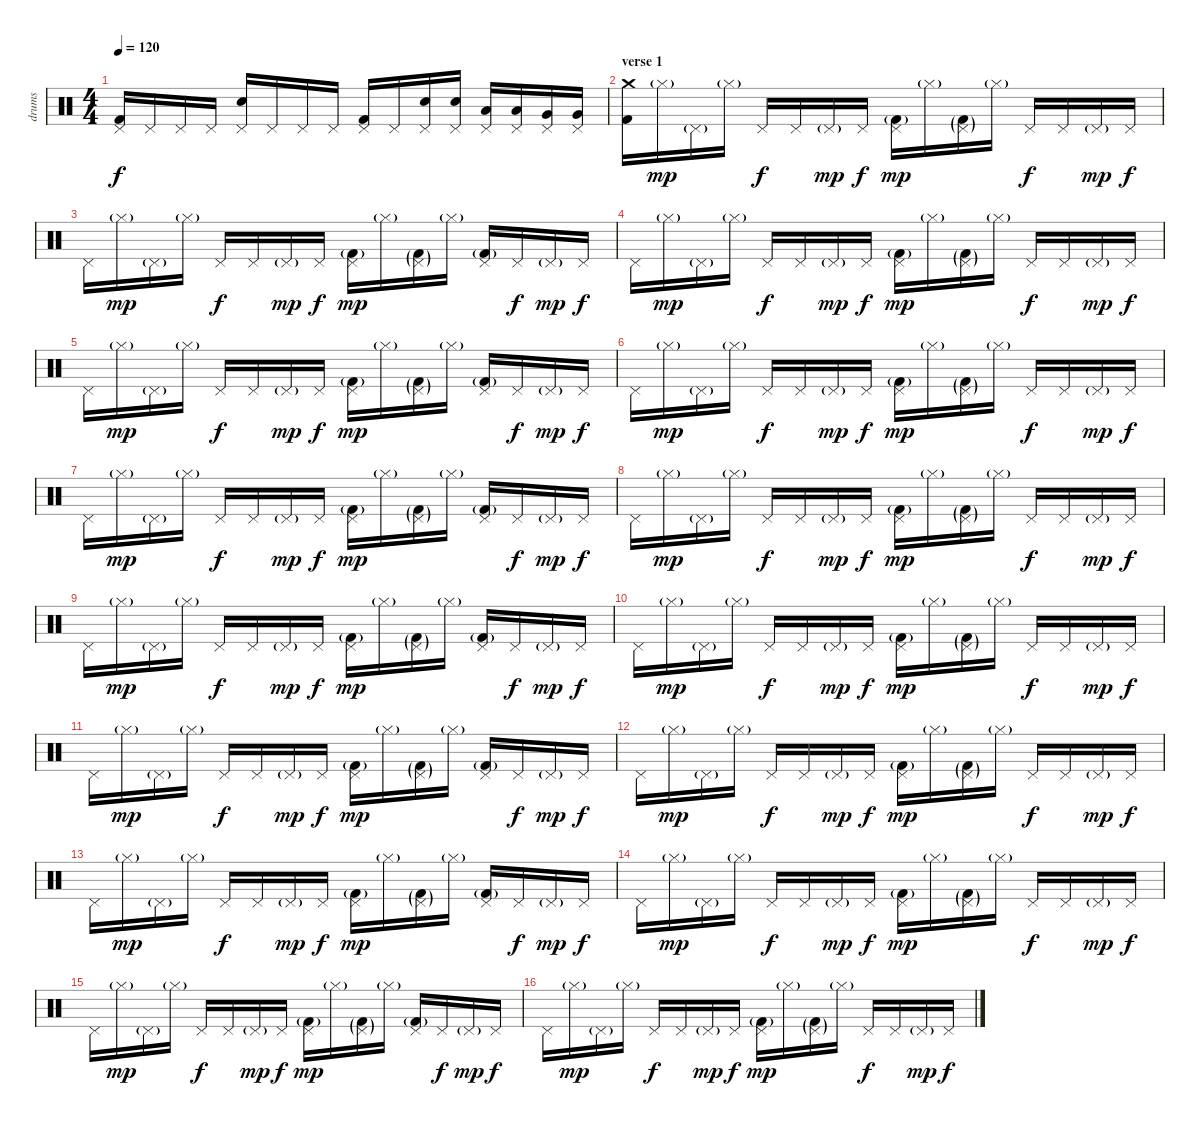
\track ("drums" "drums") {instrument percussion}
\staff {score}
\articulation defaults
\ts (4 4)
\tempo 120
\clef neutral
\ks c
("Kick (hit) 2" "Pedal Hi-Hat (hit)").16{dy f} "Pedal Hi-Hat (hit)".16 "Pedal Hi-Hat (hit)".16 "Pedal Hi-Hat (hit)".16 ("Electric Snare (hit)" "Pedal Hi-Hat (hit)").16 "Pedal Hi-Hat (hit)".16 "Pedal Hi-Hat (hit)".16 "Pedal Hi-Hat (hit)".16 ("Kick (hit) 2" "Pedal Hi-Hat (hit)").16 "Pedal Hi-Hat (hit)".16 ("Electric Snare (hit)" "Pedal Hi-Hat (hit)").16 ("Electric Snare (hit)" "Pedal Hi-Hat (hit)").16 ("Low Tom (hit)" "Pedal Hi-Hat (hit)").16 ("Low Tom (hit)" "Pedal Hi-Hat (hit)").16 ("Very Low Tom (hit)" "Pedal Hi-Hat (hit)").16 ("Very Low Tom (hit)" "Pedal Hi-Hat (hit)").16 |
\section ("" "verse 1")
("Kick (hit) 2" "Crash medium (hit)").16 "Hi-Hat (closed)"{g}.16{dy mp} "Pedal Hi-Hat (hit)"{g}.16 "Hi-Hat (closed)"{g}.16 "Pedal Hi-Hat (hit)".16{dy f volume 10} "Pedal Hi-Hat (hit)".16 "Pedal Hi-Hat (hit)"{g}.16{dy mp} "Pedal Hi-Hat (hit)".16{dy f} ("Kick (hit) 2"{g} "Pedal Hi-Hat (hit)").16{dy mp} "Hi-Hat (closed)"{g}.16 ("Kick (hit) 2"{g} "Pedal Hi-Hat (hit)"{g}).16 "Hi-Hat (closed)"{g}.16 "Pedal Hi-Hat (hit)".16{dy f} "Pedal Hi-Hat (hit)".16 "Pedal Hi-Hat (hit)"{g}.16{dy mp} "Pedal Hi-Hat (hit)".16{dy f} |
"Pedal Hi-Hat (hit)".16 "Hi-Hat (closed)"{g}.16{dy mp} "Pedal Hi-Hat (hit)"{g}.16 "Hi-Hat (closed)"{g}.16 "Pedal Hi-Hat (hit)".16{dy f} "Pedal Hi-Hat (hit)".16 "Pedal Hi-Hat (hit)"{g}.16{dy mp} "Pedal Hi-Hat (hit)".16{dy f} ("Kick (hit) 2"{g} "Pedal Hi-Hat (hit)").16{dy mp} "Hi-Hat (closed)"{g}.16 ("Kick (hit) 2"{g} "Pedal Hi-Hat (hit)"{g}).16 "Hi-Hat (closed)"{g}.16 ("Kick (hit) 2"{g} "Pedal Hi-Hat (hit)").16 "Pedal Hi-Hat (hit)".16{dy f} "Pedal Hi-Hat (hit)"{g}.16{dy mp} "Pedal Hi-Hat (hit)".16{dy f} |
"Pedal Hi-Hat (hit)".16 "Hi-Hat (closed)"{g}.16{dy mp} "Pedal Hi-Hat (hit)"{g}.16 "Hi-Hat (closed)"{g}.16 "Pedal Hi-Hat (hit)".16{dy f} "Pedal Hi-Hat (hit)".16 "Pedal Hi-Hat (hit)"{g}.16{dy mp} "Pedal Hi-Hat (hit)".16{dy f} ("Kick (hit) 2"{g} "Pedal Hi-Hat (hit)").16{dy mp} "Hi-Hat (closed)"{g}.16 ("Kick (hit) 2"{g} "Pedal Hi-Hat (hit)"{g}).16 "Hi-Hat (closed)"{g}.16 "Pedal Hi-Hat (hit)".16{dy f} "Pedal Hi-Hat (hit)".16 "Pedal Hi-Hat (hit)"{g}.16{dy mp} "Pedal Hi-Hat (hit)".16{dy f} |
"Pedal Hi-Hat (hit)".16 "Hi-Hat (closed)"{g}.16{dy mp} "Pedal Hi-Hat (hit)"{g}.16 "Hi-Hat (closed)"{g}.16 "Pedal Hi-Hat (hit)".16{dy f} "Pedal Hi-Hat (hit)".16 "Pedal Hi-Hat (hit)"{g}.16{dy mp} "Pedal Hi-Hat (hit)".16{dy f} ("Kick (hit) 2"{g} "Pedal Hi-Hat (hit)").16{dy mp} "Hi-Hat (closed)"{g}.16 ("Kick (hit) 2"{g} "Pedal Hi-Hat (hit)"{g}).16 "Hi-Hat (closed)"{g}.16 ("Kick (hit) 2"{g} "Pedal Hi-Hat (hit)").16 "Pedal Hi-Hat (hit)".16{dy f} "Pedal Hi-Hat (hit)"{g}.16{dy mp} "Pedal Hi-Hat (hit)".16{dy f} |
"Pedal Hi-Hat (hit)".16 "Hi-Hat (closed)"{g}.16{dy mp} "Pedal Hi-Hat (hit)"{g}.16 "Hi-Hat (closed)"{g}.16 "Pedal Hi-Hat (hit)".16{dy f} "Pedal Hi-Hat (hit)".16 "Pedal Hi-Hat (hit)"{g}.16{dy mp} "Pedal Hi-Hat (hit)".16{dy f} ("Kick (hit) 2"{g} "Pedal Hi-Hat (hit)").16{dy mp} "Hi-Hat (closed)"{g}.16 ("Kick (hit) 2"{g} "Pedal Hi-Hat (hit)"{g}).16 "Hi-Hat (closed)"{g}.16 "Pedal Hi-Hat (hit)".16{dy f} "Pedal Hi-Hat (hit)".16 "Pedal Hi-Hat (hit)"{g}.16{dy mp} "Pedal Hi-Hat (hit)".16{dy f} |
"Pedal Hi-Hat (hit)".16 "Hi-Hat (closed)"{g}.16{dy mp} "Pedal Hi-Hat (hit)"{g}.16 "Hi-Hat (closed)"{g}.16 "Pedal Hi-Hat (hit)".16{dy f} "Pedal Hi-Hat (hit)".16 "Pedal Hi-Hat (hit)"{g}.16{dy mp} "Pedal Hi-Hat (hit)".16{dy f} ("Kick (hit) 2"{g} "Pedal Hi-Hat (hit)").16{dy mp} "Hi-Hat (closed)"{g}.16 ("Kick (hit) 2"{g} "Pedal Hi-Hat (hit)"{g}).16 "Hi-Hat (closed)"{g}.16 ("Kick (hit) 2"{g} "Pedal Hi-Hat (hit)").16 "Pedal Hi-Hat (hit)".16{dy f} "Pedal Hi-Hat (hit)"{g}.16{dy mp} "Pedal Hi-Hat (hit)".16{dy f} |
"Pedal Hi-Hat (hit)".16 "Hi-Hat (closed)"{g}.16{dy mp} "Pedal Hi-Hat (hit)"{g}.16 "Hi-Hat (closed)"{g}.16 "Pedal Hi-Hat (hit)".16{dy f} "Pedal Hi-Hat (hit)".16 "Pedal Hi-Hat (hit)"{g}.16{dy mp} "Pedal Hi-Hat (hit)".16{dy f} ("Kick (hit) 2"{g} "Pedal Hi-Hat (hit)").16{dy mp} "Hi-Hat (closed)"{g}.16 ("Kick (hit) 2"{g} "Pedal Hi-Hat (hit)"{g}).16 "Hi-Hat (closed)"{g}.16 "Pedal Hi-Hat (hit)".16{dy f} "Pedal Hi-Hat (hit)".16 "Pedal Hi-Hat (hit)"{g}.16{dy mp} "Pedal Hi-Hat (hit)".16{dy f} |
"Pedal Hi-Hat (hit)".16 "Hi-Hat (closed)"{g}.16{dy mp} "Pedal Hi-Hat (hit)"{g}.16 "Hi-Hat (closed)"{g}.16 "Pedal Hi-Hat (hit)".16{dy f} "Pedal Hi-Hat (hit)".16 "Pedal Hi-Hat (hit)"{g}.16{dy mp} "Pedal Hi-Hat (hit)".16{dy f} ("Kick (hit) 2"{g} "Pedal Hi-Hat (hit)").16{dy mp} "Hi-Hat (closed)"{g}.16 ("Kick (hit) 2"{g} "Pedal Hi-Hat (hit)"{g}).16 "Hi-Hat (closed)"{g}.16 ("Kick (hit) 2"{g} "Pedal Hi-Hat (hit)").16 "Pedal Hi-Hat (hit)".16{dy f} "Pedal Hi-Hat (hit)"{g}.16{dy mp} "Pedal Hi-Hat (hit)".16{dy f} |
"Pedal Hi-Hat (hit)".16 "Hi-Hat (closed)"{g}.16{dy mp} "Pedal Hi-Hat (hit)"{g}.16 "Hi-Hat (closed)"{g}.16 "Pedal Hi-Hat (hit)".16{dy f} "Pedal Hi-Hat (hit)".16 "Pedal Hi-Hat (hit)"{g}.16{dy mp} "Pedal Hi-Hat (hit)".16{dy f} ("Kick (hit) 2"{g} "Pedal Hi-Hat (hit)").16{dy mp} "Hi-Hat (closed)"{g}.16 ("Kick (hit) 2"{g} "Pedal Hi-Hat (hit)"{g}).16 "Hi-Hat (closed)"{g}.16 "Pedal Hi-Hat (hit)".16{dy f} "Pedal Hi-Hat (hit)".16 "Pedal Hi-Hat (hit)"{g}.16{dy mp} "Pedal Hi-Hat (hit)".16{dy f} |
"Pedal Hi-Hat (hit)".16 "Hi-Hat (closed)"{g}.16{dy mp} "Pedal Hi-Hat (hit)"{g}.16 "Hi-Hat (closed)"{g}.16 "Pedal Hi-Hat (hit)".16{dy f} "Pedal Hi-Hat (hit)".16 "Pedal Hi-Hat (hit)"{g}.16{dy mp} "Pedal Hi-Hat (hit)".16{dy f} ("Kick (hit) 2"{g} "Pedal Hi-Hat (hit)").16{dy mp} "Hi-Hat (closed)"{g}.16 ("Kick (hit) 2"{g} "Pedal Hi-Hat (hit)"{g}).16 "Hi-Hat (closed)"{g}.16 ("Kick (hit) 2"{g} "Pedal Hi-Hat (hit)").16 "Pedal Hi-Hat (hit)".16{dy f} "Pedal Hi-Hat (hit)"{g}.16{dy mp} "Pedal Hi-Hat (hit)".16{dy f} |
"Pedal Hi-Hat (hit)".16 "Hi-Hat (closed)"{g}.16{dy mp} "Pedal Hi-Hat (hit)"{g}.16 "Hi-Hat (closed)"{g}.16 "Pedal Hi-Hat (hit)".16{dy f} "Pedal Hi-Hat (hit)".16 "Pedal Hi-Hat (hit)"{g}.16{dy mp} "Pedal Hi-Hat (hit)".16{dy f} ("Kick (hit) 2"{g} "Pedal Hi-Hat (hit)").16{dy mp} "Hi-Hat (closed)"{g}.16 ("Kick (hit) 2"{g} "Pedal Hi-Hat (hit)"{g}).16 "Hi-Hat (closed)"{g}.16 "Pedal Hi-Hat (hit)".16{dy f} "Pedal Hi-Hat (hit)".16 "Pedal Hi-Hat (hit)"{g}.16{dy mp} "Pedal Hi-Hat (hit)".16{dy f} |
"Pedal Hi-Hat (hit)".16 "Hi-Hat (closed)"{g}.16{dy mp} "Pedal Hi-Hat (hit)"{g}.16 "Hi-Hat (closed)"{g}.16 "Pedal Hi-Hat (hit)".16{dy f} "Pedal Hi-Hat (hit)".16 "Pedal Hi-Hat (hit)"{g}.16{dy mp} "Pedal Hi-Hat (hit)".16{dy f} ("Kick (hit) 2"{g} "Pedal Hi-Hat (hit)").16{dy mp} "Hi-Hat (closed)"{g}.16 ("Kick (hit) 2"{g} "Pedal Hi-Hat (hit)"{g}).16 "Hi-Hat (closed)"{g}.16 ("Kick (hit) 2"{g} "Pedal Hi-Hat (hit)").16 "Pedal Hi-Hat (hit)".16{dy f} "Pedal Hi-Hat (hit)"{g}.16{dy mp} "Pedal Hi-Hat (hit)".16{dy f} |
"Pedal Hi-Hat (hit)".16 "Hi-Hat (closed)"{g}.16{dy mp} "Pedal Hi-Hat (hit)"{g}.16 "Hi-Hat (closed)"{g}.16 "Pedal Hi-Hat (hit)".16{dy f} "Pedal Hi-Hat (hit)".16 "Pedal Hi-Hat (hit)"{g}.16{dy mp} "Pedal Hi-Hat (hit)".16{dy f} ("Kick (hit) 2"{g} "Pedal Hi-Hat (hit)").16{dy mp} "Hi-Hat (closed)"{g}.16 ("Kick (hit) 2"{g} "Pedal Hi-Hat (hit)"{g}).16 "Hi-Hat (closed)"{g}.16 "Pedal Hi-Hat (hit)".16{dy f} "Pedal Hi-Hat (hit)".16 "Pedal Hi-Hat (hit)"{g}.16{dy mp} "Pedal Hi-Hat (hit)".16{dy f} |
"Pedal Hi-Hat (hit)".16 "Hi-Hat (closed)"{g}.16{dy mp} "Pedal Hi-Hat (hit)"{g}.16 "Hi-Hat (closed)"{g}.16 "Pedal Hi-Hat (hit)".16{dy f} "Pedal Hi-Hat (hit)".16 "Pedal Hi-Hat (hit)"{g}.16{dy mp} "Pedal Hi-Hat (hit)".16{dy f} ("Kick (hit) 2"{g} "Pedal Hi-Hat (hit)").16{dy mp} "Hi-Hat (closed)"{g}.16 ("Kick (hit) 2"{g} "Pedal Hi-Hat (hit)"{g}).16 "Hi-Hat (closed)"{g}.16 ("Kick (hit) 2"{g} "Pedal Hi-Hat (hit)").16 "Pedal Hi-Hat (hit)".16{dy f} "Pedal Hi-Hat (hit)"{g}.16{dy mp} "Pedal Hi-Hat (hit)".16{dy f} |
"Pedal Hi-Hat (hit)".16 "Hi-Hat (closed)"{g}.16{dy mp} "Pedal Hi-Hat (hit)"{g}.16 "Hi-Hat (closed)"{g}.16 "Pedal Hi-Hat (hit)".16{dy f} "Pedal Hi-Hat (hit)".16 "Pedal Hi-Hat (hit)"{g}.16{dy mp} "Pedal Hi-Hat (hit)".16{dy f} ("Kick (hit) 2"{g} "Pedal Hi-Hat (hit)").16{dy mp} "Hi-Hat (closed)"{g}.16 ("Kick (hit) 2"{g} "Pedal Hi-Hat (hit)"{g}).16 "Hi-Hat (closed)"{g}.16 "Pedal Hi-Hat (hit)".16{dy f} "Pedal Hi-Hat (hit)".16 "Pedal Hi-Hat (hit)"{g}.16{dy mp} "Pedal Hi-Hat (hit)".16{dy f}
